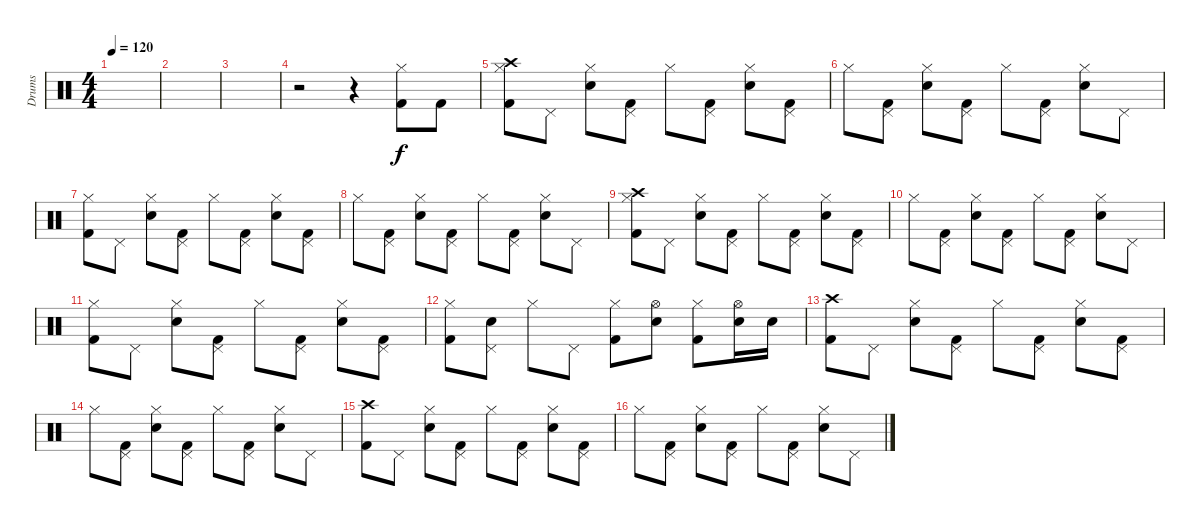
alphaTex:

\track ("Drums" "Drums") {instrument percussion}
\staff {score}
\articulation defaults
\ts (4 4)
\tempo 120
\clef neutral
\ks c
|
|
|
r.2 r.4 ("Kick (hit) 2" "Hi-Hat (closed)").8 "Kick (hit) 2".8 |
("Kick (hit) 2" "Hi-Hat (closed)" "Crash high (hit)").8 "Pedal Hi-Hat (hit)".8 ("Electric Snare (hit)" "Hi-Hat (closed)").8 ("Kick (hit) 2" "Pedal Hi-Hat (hit)").8 "Hi-Hat (closed)".8 ("Kick (hit) 2" "Pedal Hi-Hat (hit)").8 ("Electric Snare (hit)" "Hi-Hat (closed)").8 ("Kick (hit) 2" "Pedal Hi-Hat (hit)").8 |
"Hi-Hat (closed)".8 ("Kick (hit) 2" "Pedal Hi-Hat (hit)").8 ("Electric Snare (hit)" "Hi-Hat (closed)").8 ("Kick (hit) 2" "Pedal Hi-Hat (hit)").8 "Hi-Hat (closed)".8 ("Kick (hit) 2" "Pedal Hi-Hat (hit)").8 ("Electric Snare (hit)" "Hi-Hat (closed)").8 "Pedal Hi-Hat (hit)".8 |
("Kick (hit) 2" "Hi-Hat (closed)").8 "Pedal Hi-Hat (hit)".8 ("Electric Snare (hit)" "Hi-Hat (closed)").8 ("Kick (hit) 2" "Pedal Hi-Hat (hit)").8 "Hi-Hat (closed)".8 ("Kick (hit) 2" "Pedal Hi-Hat (hit)").8 ("Electric Snare (hit)" "Hi-Hat (closed)").8 ("Kick (hit) 2" "Pedal Hi-Hat (hit)").8 |
"Hi-Hat (closed)".8 ("Kick (hit) 2" "Pedal Hi-Hat (hit)").8 ("Electric Snare (hit)" "Hi-Hat (closed)").8 ("Kick (hit) 2" "Pedal Hi-Hat (hit)").8 "Hi-Hat (closed)".8 ("Kick (hit) 2" "Pedal Hi-Hat (hit)").8 ("Electric Snare (hit)" "Hi-Hat (closed)").8 "Pedal Hi-Hat (hit)".8 |
("Kick (hit) 2" "Hi-Hat (closed)" "Crash high (hit)").8 "Pedal Hi-Hat (hit)".8 ("Electric Snare (hit)" "Hi-Hat (closed)").8 ("Kick (hit) 2" "Pedal Hi-Hat (hit)").8 "Hi-Hat (closed)".8 ("Kick (hit) 2" "Pedal Hi-Hat (hit)").8 ("Electric Snare (hit)" "Hi-Hat (closed)").8 ("Kick (hit) 2" "Pedal Hi-Hat (hit)").8 |
"Hi-Hat (closed)".8 ("Kick (hit) 2" "Pedal Hi-Hat (hit)").8 ("Electric Snare (hit)" "Hi-Hat (closed)").8 ("Kick (hit) 2" "Pedal Hi-Hat (hit)").8 "Hi-Hat (closed)".8 ("Kick (hit) 2" "Pedal Hi-Hat (hit)").8 ("Electric Snare (hit)" "Hi-Hat (closed)").8 "Pedal Hi-Hat (hit)".8 |
("Kick (hit) 2" "Hi-Hat (closed)").8 "Pedal Hi-Hat (hit)".8 ("Electric Snare (hit)" "Hi-Hat (closed)").8 ("Kick (hit) 2" "Pedal Hi-Hat (hit)").8 "Hi-Hat (closed)".8 ("Kick (hit) 2" "Pedal Hi-Hat (hit)").8 ("Electric Snare (hit)" "Hi-Hat (closed)").8 ("Kick (hit) 2" "Pedal Hi-Hat (hit)").8 |
("Kick (hit) 2" "Hi-Hat (closed)").8 ("Electric Snare (hit)" "Pedal Hi-Hat (hit)").8 "Hi-Hat (closed)".8 "Pedal Hi-Hat (hit)".8 ("Kick (hit) 2" "Hi-Hat (closed)").8 ("Electric Snare (hit)" "Hi-Hat (open)").8 ("Kick (hit) 2" "Hi-Hat (closed)").8 ("Electric Snare (hit)" "Hi-Hat (open)").16 "Electric Snare (hit)".16 |
("Kick (hit) 2" "Crash high (hit)").8 "Pedal Hi-Hat (hit)".8 ("Electric Snare (hit)" "Hi-Hat (closed)").8 ("Kick (hit) 2" "Pedal Hi-Hat (hit)").8 "Hi-Hat (closed)".8 ("Kick (hit) 2" "Pedal Hi-Hat (hit)").8 ("Electric Snare (hit)" "Hi-Hat (closed)").8 ("Kick (hit) 2" "Pedal Hi-Hat (hit)").8 |
"Hi-Hat (closed)".8 ("Kick (hit) 2" "Pedal Hi-Hat (hit)").8 ("Electric Snare (hit)" "Hi-Hat (closed)").8 ("Kick (hit) 2" "Pedal Hi-Hat (hit)").8 "Hi-Hat (closed)".8 ("Kick (hit) 2" "Pedal Hi-Hat (hit)").8 ("Electric Snare (hit)" "Hi-Hat (closed)").8 "Pedal Hi-Hat (hit)".8 |
("Kick (hit) 2" "Crash high (hit)").8 "Pedal Hi-Hat (hit)".8 ("Electric Snare (hit)" "Hi-Hat (closed)").8 ("Kick (hit) 2" "Pedal Hi-Hat (hit)").8 "Hi-Hat (closed)".8 ("Kick (hit) 2" "Pedal Hi-Hat (hit)").8 ("Electric Snare (hit)" "Hi-Hat (closed)").8 ("Kick (hit) 2" "Pedal Hi-Hat (hit)").8 |
"Hi-Hat (closed)".8 ("Kick (hit) 2" "Pedal Hi-Hat (hit)").8 ("Electric Snare (hit)" "Hi-Hat (closed)").8 ("Kick (hit) 2" "Pedal Hi-Hat (hit)").8 "Hi-Hat (closed)".8 ("Kick (hit) 2" "Pedal Hi-Hat (hit)").8 ("Electric Snare (hit)" "Hi-Hat (closed)").8 "Pedal Hi-Hat (hit)".8
